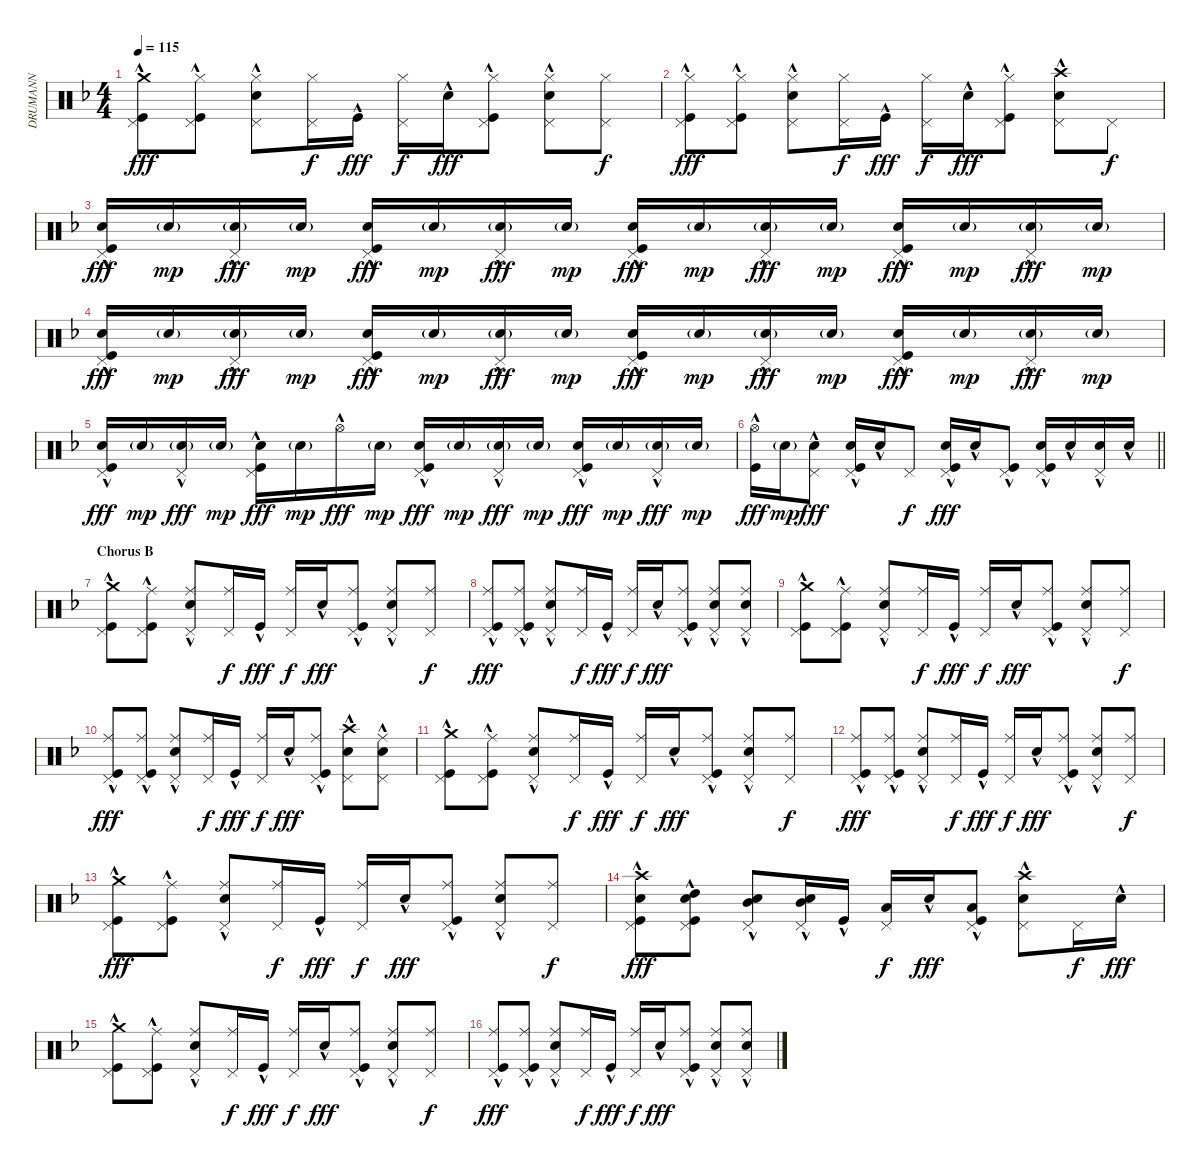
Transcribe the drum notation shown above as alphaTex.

\track ("DRUMANN" "DRUMANN") {instrument percussion}
\staff {score}
\articulation defaults
\ts (4 4)
\tempo 115
\clef neutral
\ks f
("Crash medium (hit)"{hac} "Pedal Hi-Hat (hit)" "Kick (hit)"{hac}).8{dy fff} ("Hi-Hat (closed)" "Pedal Hi-Hat (hit)" "Kick (hit)"{hac}).8 ("Hi-Hat (closed)" "Snare (hit) 2"{hac} "Pedal Hi-Hat (hit)").8 ("Hi-Hat (closed)" "Pedal Hi-Hat (hit)").16{dy f} "Kick (hit)"{hac}.16{dy fff} ("Hi-Hat (closed)" "Pedal Hi-Hat (hit)").16{dy f} "Snare (hit) 2"{hac}.16{dy fff} ("Hi-Hat (closed)" "Pedal Hi-Hat (hit)" "Kick (hit)"{hac}).8 ("Hi-Hat (closed)" "Snare (hit) 2"{hac} "Pedal Hi-Hat (hit)").8 ("Hi-Hat (closed)" "Pedal Hi-Hat (hit)").8{dy f} |
("Hi-Hat (closed)" "Pedal Hi-Hat (hit)" "Kick (hit)"{hac}).8{dy fff} ("Hi-Hat (closed)" "Pedal Hi-Hat (hit)" "Kick (hit)"{hac}).8 ("Hi-Hat (closed)" "Snare (hit) 2"{hac} "Pedal Hi-Hat (hit)").8 ("Hi-Hat (closed)" "Pedal Hi-Hat (hit)").16{dy f} "Kick (hit)"{hac}.16{dy fff} ("Hi-Hat (closed)" "Pedal Hi-Hat (hit)").16{dy f} "Snare (hit) 2"{hac}.16{dy fff} ("Hi-Hat (closed)" "Pedal Hi-Hat (hit)" "Kick (hit)"{hac}).8 ("Crash high (hit)"{hac} "Snare (hit) 2"{hac} "Pedal Hi-Hat (hit)").8 "Pedal Hi-Hat (hit)".8{dy f} |
("Snare (hit) 2" "Pedal Hi-Hat (hit)"{hac} "Kick (hit)"{hac}).16{dy fff} "Snare (hit) 2"{g}.16{dy mp} ("Snare (hit) 2"{g} "Pedal Hi-Hat (hit)"{hac}).16{dy fff} "Snare (hit) 2"{g}.16{dy mp} ("Snare (hit) 2" "Pedal Hi-Hat (hit)"{hac} "Kick (hit)"{hac}).16{dy fff} "Snare (hit) 2"{g}.16{dy mp} ("Snare (hit) 2"{g} "Pedal Hi-Hat (hit)"{hac}).16{dy fff} "Snare (hit) 2"{g}.16{dy mp} ("Snare (hit) 2" "Pedal Hi-Hat (hit)"{hac} "Kick (hit)"{hac}).16{dy fff} "Snare (hit) 2"{g}.16{dy mp} ("Snare (hit) 2"{g} "Pedal Hi-Hat (hit)"{hac}).16{dy fff} "Snare (hit) 2"{g}.16{dy mp} ("Snare (hit) 2" "Pedal Hi-Hat (hit)"{hac} "Kick (hit)"{hac}).16{dy fff} "Snare (hit) 2"{g}.16{dy mp} ("Snare (hit) 2"{g} "Pedal Hi-Hat (hit)"{hac}).16{dy fff} "Snare (hit) 2"{g}.16{dy mp} |
("Snare (hit) 2" "Pedal Hi-Hat (hit)"{hac} "Kick (hit)"{hac}).16{dy fff} "Snare (hit) 2"{g}.16{dy mp} ("Snare (hit) 2"{g} "Pedal Hi-Hat (hit)"{hac}).16{dy fff} "Snare (hit) 2"{g}.16{dy mp} ("Snare (hit) 2" "Pedal Hi-Hat (hit)"{hac} "Kick (hit)"{hac}).16{dy fff} "Snare (hit) 2"{g}.16{dy mp} ("Snare (hit) 2"{g} "Pedal Hi-Hat (hit)"{hac}).16{dy fff} "Snare (hit) 2"{g}.16{dy mp} ("Snare (hit) 2" "Pedal Hi-Hat (hit)"{hac} "Kick (hit)"{hac}).16{dy fff} "Snare (hit) 2"{g}.16{dy mp} ("Snare (hit) 2"{g} "Pedal Hi-Hat (hit)"{hac}).16{dy fff} "Snare (hit) 2"{g}.16{dy mp} ("Snare (hit) 2" "Pedal Hi-Hat (hit)"{hac} "Kick (hit)"{hac}).16{dy fff} "Snare (hit) 2"{g}.16{dy mp} ("Snare (hit) 2"{g} "Pedal Hi-Hat (hit)"{hac}).16{dy fff} "Snare (hit) 2"{g}.16{dy mp} |
("Snare (hit) 2" "Pedal Hi-Hat (hit)"{hac} "Kick (hit)"{hac}).16{dy fff} "Snare (hit) 2"{g}.16{dy mp} ("Snare (hit) 2"{g} "Pedal Hi-Hat (hit)"{hac}).16{dy fff} "Snare (hit) 2"{g}.16{dy mp} ("Snare (hit) 2" "Pedal Hi-Hat (hit)"{hac} "Kick (hit)"{hac}).16{dy fff} "Snare (hit) 2"{g}.16{dy mp} "Hi-Hat (open)"{hac}.16{dy fff} "Snare (hit) 2"{g}.16{dy mp} ("Snare (hit) 2" "Pedal Hi-Hat (hit)"{hac} "Kick (hit)"{hac}).16{dy fff} "Snare (hit) 2"{g}.16{dy mp} ("Snare (hit) 2"{g} "Pedal Hi-Hat (hit)"{hac}).16{dy fff} "Snare (hit) 2"{g}.16{dy mp} ("Snare (hit) 2" "Pedal Hi-Hat (hit)"{hac} "Kick (hit)"{hac}).16{dy fff} "Snare (hit) 2"{g}.16{dy mp} ("Snare (hit) 2"{g} "Pedal Hi-Hat (hit)"{hac}).16{dy fff} "Snare (hit) 2"{g}.16{dy mp} |
\barLineRight lightlight
("Hi-Hat (open)"{hac} "Kick (hit)"{hac}).16{dy fff} "Snare (hit) 2"{g}.16{dy mp} ("Snare (hit) 2"{hac} "Pedal Hi-Hat (hit)"{hac}).8{dy fff} ("Snare (hit) 2"{hac} "Pedal Hi-Hat (hit)"{hac} "Kick (hit)"{hac}).16 "Snare (hit) 2"{hac}.16 "Pedal Hi-Hat (hit)".8{dy f} ("Snare (hit) 2" "Pedal Hi-Hat (hit)"{hac} "Kick (hit)"{hac}).16{dy fff} "Snare (hit) 2"{hac}.16 ("Pedal Hi-Hat (hit)"{hac} "Kick (hit)"{hac}).8 ("Snare (hit) 2"{hac} "Pedal Hi-Hat (hit)"{hac} "Kick (hit)"{hac}).16 "Snare (hit) 2"{hac}.16 ("Snare (hit) 2"{hac} "Pedal Hi-Hat (hit)"{hac}).16 "Snare (hit) 2"{hac}.16 |
\section ("" "Chorus B")
("Crash medium (hit)"{hac} "Pedal Hi-Hat (hit)" "Kick (hit)"{hac}).8 ("Ride (middle)" "Pedal Hi-Hat (hit)" "Kick (hit)"{hac}).8 ("Ride (middle)" "Snare (hit) 2"{hac} "Pedal Hi-Hat (hit)").8 ("Ride (middle)" "Pedal Hi-Hat (hit)").16{dy f} "Kick (hit)"{hac}.16{dy fff} ("Ride (middle)" "Pedal Hi-Hat (hit)").16{dy f} "Snare (hit) 2"{hac}.16{dy fff} ("Ride (middle)" "Pedal Hi-Hat (hit)" "Kick (hit)"{hac}).8 ("Ride (middle)" "Snare (hit) 2"{hac} "Pedal Hi-Hat (hit)").8 ("Ride (middle)" "Pedal Hi-Hat (hit)").8{dy f} |
("Ride (middle)" "Pedal Hi-Hat (hit)" "Kick (hit)"{hac}).8{dy fff} ("Ride (middle)" "Pedal Hi-Hat (hit)" "Kick (hit)"{hac}).8 ("Ride (middle)" "Snare (hit) 2"{hac} "Pedal Hi-Hat (hit)").8 ("Ride (middle)" "Pedal Hi-Hat (hit)").16{dy f} "Kick (hit)"{hac}.16{dy fff} ("Ride (middle)" "Pedal Hi-Hat (hit)").16{dy f} "Snare (hit) 2"{hac}.16{dy fff} ("Ride (middle)" "Pedal Hi-Hat (hit)" "Kick (hit)"{hac}).8 ("Ride (middle)" "Snare (hit) 2"{hac} "Pedal Hi-Hat (hit)").8 ("Ride (middle)" "Snare (hit) 2"{hac} "Pedal Hi-Hat (hit)").8 |
("Crash medium (hit)"{hac} "Pedal Hi-Hat (hit)" "Kick (hit)"{hac}).8 ("Ride (middle)" "Pedal Hi-Hat (hit)" "Kick (hit)"{hac}).8 ("Ride (middle)" "Snare (hit) 2"{hac} "Pedal Hi-Hat (hit)").8 ("Ride (middle)" "Pedal Hi-Hat (hit)").16{dy f} "Kick (hit)"{hac}.16{dy fff} ("Ride (middle)" "Pedal Hi-Hat (hit)").16{dy f} "Snare (hit) 2"{hac}.16{dy fff} ("Ride (middle)" "Pedal Hi-Hat (hit)" "Kick (hit)"{hac}).8 ("Ride (middle)" "Snare (hit) 2"{hac} "Pedal Hi-Hat (hit)").8 ("Ride (middle)" "Pedal Hi-Hat (hit)").8{dy f} |
("Ride (middle)" "Pedal Hi-Hat (hit)" "Kick (hit)"{hac}).8{dy fff} ("Ride (middle)" "Pedal Hi-Hat (hit)" "Kick (hit)"{hac}).8 ("Ride (middle)" "Snare (hit) 2"{hac} "Pedal Hi-Hat (hit)").8 ("Ride (middle)" "Pedal Hi-Hat (hit)").16{dy f} "Kick (hit)"{hac}.16{dy fff} ("Ride (middle)" "Pedal Hi-Hat (hit)").16{dy f} "Snare (hit) 2"{hac}.16{dy fff} ("Ride (middle)" "Pedal Hi-Hat (hit)" "Kick (hit)"{hac}).8 ("Crash high (hit)"{hac} "Snare (hit) 2"{hac} "Pedal Hi-Hat (hit)").8 ("Ride (middle)" "Snare (hit) 2"{hac} "Pedal Hi-Hat (hit)").8 |
("Crash medium (hit)"{hac} "Pedal Hi-Hat (hit)" "Kick (hit)"{hac}).8 ("Ride (middle)" "Pedal Hi-Hat (hit)" "Kick (hit)"{hac}).8 ("Ride (middle)" "Snare (hit) 2"{hac} "Pedal Hi-Hat (hit)").8 ("Ride (middle)" "Pedal Hi-Hat (hit)").16{dy f} "Kick (hit)"{hac}.16{dy fff} ("Ride (middle)" "Pedal Hi-Hat (hit)").16{dy f} "Snare (hit) 2"{hac}.16{dy fff} ("Ride (middle)" "Pedal Hi-Hat (hit)" "Kick (hit)"{hac}).8 ("Ride (middle)" "Snare (hit) 2"{hac} "Pedal Hi-Hat (hit)").8 ("Ride (middle)" "Pedal Hi-Hat (hit)").8{dy f} |
("Ride (middle)" "Pedal Hi-Hat (hit)" "Kick (hit)"{hac}).8{dy fff} ("Ride (middle)" "Pedal Hi-Hat (hit)" "Kick (hit)"{hac}).8 ("Ride (middle)" "Snare (hit) 2"{hac} "Pedal Hi-Hat (hit)").8 ("Ride (middle)" "Pedal Hi-Hat (hit)").16{dy f} "Kick (hit)"{hac}.16{dy fff} ("Ride (middle)" "Pedal Hi-Hat (hit)").16{dy f} "Snare (hit) 2"{hac}.16{dy fff} ("Ride (middle)" "Pedal Hi-Hat (hit)" "Kick (hit)"{hac}).8 ("Ride (middle)" "Snare (hit) 2"{hac} "Pedal Hi-Hat (hit)").8 ("Ride (middle)" "Pedal Hi-Hat (hit)").8{dy f} |
("Crash medium (hit)"{hac} "Pedal Hi-Hat (hit)" "Kick (hit)"{hac}).8{dy fff} ("Ride (middle)" "Pedal Hi-Hat (hit)" "Kick (hit)"{hac}).8 ("Ride (middle)" "Snare (hit) 2"{hac} "Pedal Hi-Hat (hit)").8 ("Ride (middle)" "Pedal Hi-Hat (hit)").16{dy f} "Kick (hit)"{hac}.16{dy fff} ("Ride (middle)" "Pedal Hi-Hat (hit)").16{dy f} "Snare (hit) 2"{hac}.16{dy fff} ("Ride (middle)" "Pedal Hi-Hat (hit)" "Kick (hit)"{hac}).8 ("Ride (middle)" "Snare (hit) 2"{hac} "Pedal Hi-Hat (hit)").8 ("Ride (middle)" "Pedal Hi-Hat (hit)").8{dy f} |
("Crash high (hit)"{hac} "Snare (hit) 2"{hac} "Pedal Hi-Hat (hit)" "Kick (hit)"{hac}).8{dy fff} ("High Tom (hit)" "Snare (hit) 2"{hac} "Pedal Hi-Hat (hit)" "Kick (hit)"{hac}).8 ("Mid Tom (hit)" "Snare (hit) 2"{hac} "Pedal Hi-Hat (hit)").8 ("Mid Tom (hit)" "Snare (hit) 2"{hac} "Pedal Hi-Hat (hit)").16 "Kick (hit)"{hac}.16 ("Low Tom (hit)" "Pedal Hi-Hat (hit)").16{dy f} "Snare (hit) 2"{hac}.16{dy fff} ("Low Tom (hit)" "Pedal Hi-Hat (hit)" "Kick (hit)"{hac}).8 ("Crash high (hit)"{hac} "Snare (hit) 2"{hac} "Pedal Hi-Hat (hit)").8 "Pedal Hi-Hat (hit)".16{dy f} "Snare (hit) 2"{hac}.16{dy fff} |
("Crash medium (hit)"{hac} "Pedal Hi-Hat (hit)" "Kick (hit)"{hac}).8 ("Ride (middle)" "Pedal Hi-Hat (hit)" "Kick (hit)"{hac}).8 ("Ride (middle)" "Snare (hit) 2"{hac} "Pedal Hi-Hat (hit)").8 ("Ride (middle)" "Pedal Hi-Hat (hit)").16{dy f} "Kick (hit)"{hac}.16{dy fff} ("Ride (middle)" "Pedal Hi-Hat (hit)").16{dy f} "Snare (hit) 2"{hac}.16{dy fff} ("Ride (middle)" "Pedal Hi-Hat (hit)" "Kick (hit)"{hac}).8 ("Ride (middle)" "Snare (hit) 2"{hac} "Pedal Hi-Hat (hit)").8 ("Ride (middle)" "Pedal Hi-Hat (hit)").8{dy f} |
("Ride (middle)" "Pedal Hi-Hat (hit)" "Kick (hit)"{hac}).8{dy fff} ("Ride (middle)" "Pedal Hi-Hat (hit)" "Kick (hit)"{hac}).8 ("Ride (middle)" "Snare (hit) 2"{hac} "Pedal Hi-Hat (hit)").8 ("Ride (middle)" "Pedal Hi-Hat (hit)").16{dy f} "Kick (hit)"{hac}.16{dy fff} ("Ride (middle)" "Pedal Hi-Hat (hit)").16{dy f} "Snare (hit) 2"{hac}.16{dy fff} ("Ride (middle)" "Pedal Hi-Hat (hit)" "Kick (hit)"{hac}).8 ("Ride (middle)" "Snare (hit) 2"{hac} "Pedal Hi-Hat (hit)").8 ("Ride (middle)" "Snare (hit) 2"{hac} "Pedal Hi-Hat (hit)").8
